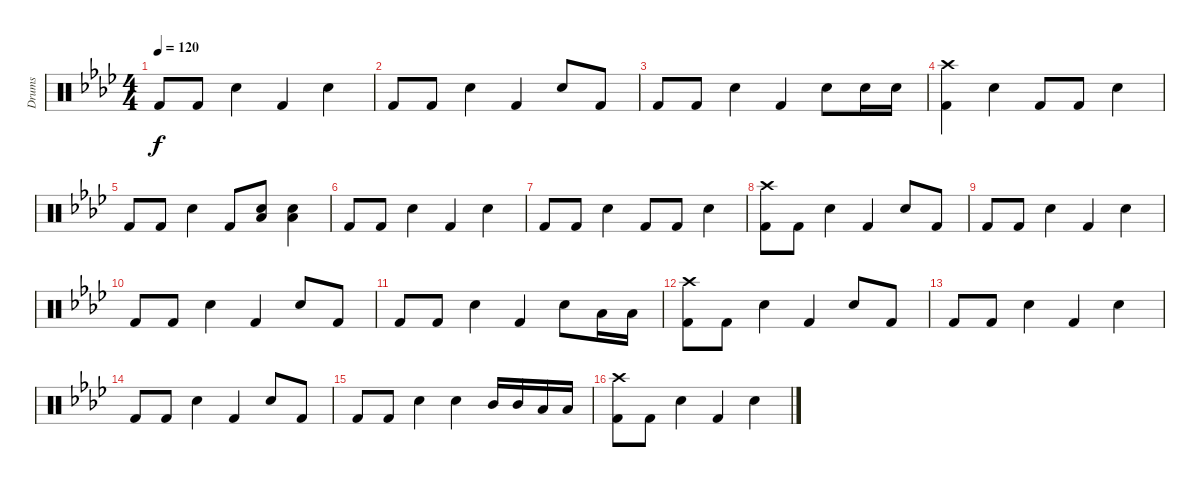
\track ("Drums" "Drums") {instrument percussion}
\staff {score}
\articulation defaults
\ts (4 4)
\tempo 120
\clef neutral
\ks ab "Kick (hit) 2".8{dy f} "Kick (hit) 2".8 "Electric Snare (hit)".4 "Kick (hit) 2".4 "Electric Snare (hit)".4
|
"Kick (hit) 2".8 "Kick (hit) 2".8 "Electric Snare (hit)".4 "Kick (hit) 2".4 "Electric Snare (hit)".8 "Kick (hit) 2".8 |
"Kick (hit) 2".8 "Kick (hit) 2".8 "Electric Snare (hit)".4 "Kick (hit) 2".4 "Electric Snare (hit)".8 "Electric Snare (hit)".16 "Electric Snare (hit)".16 |
("Crash high (hit)" "Kick (hit) 2").4 "Electric Snare (hit)".4 "Kick (hit) 2".8 "Kick (hit) 2".8 "Electric Snare (hit)".4 |
"Kick (hit) 2".8 "Kick (hit) 2".8 "Electric Snare (hit)".4 "Kick (hit) 2".8 ("Low Tom (hit)" "Electric Snare (hit)").8 ("Low Tom (hit)" "Electric Snare (hit)").4 |
"Kick (hit) 2".8 "Kick (hit) 2".8 "Electric Snare (hit)".4 "Kick (hit) 2".4 "Electric Snare (hit)".4 |
"Kick (hit) 2".8 "Kick (hit) 2".8 "Electric Snare (hit)".4 "Kick (hit) 2".8 "Kick (hit) 2".8 "Electric Snare (hit)".4 |
("Crash high (hit)" "Kick (hit) 2").8 "Kick (hit) 2".8 "Electric Snare (hit)".4 "Kick (hit) 2".4 "Electric Snare (hit)".8 "Kick (hit) 2".8 |
"Kick (hit) 2".8 "Kick (hit) 2".8 "Electric Snare (hit)".4 "Kick (hit) 2".4 "Electric Snare (hit)".4 |
"Kick (hit) 2".8 "Kick (hit) 2".8 "Electric Snare (hit)".4 "Kick (hit) 2".4 "Electric Snare (hit)".8 "Kick (hit) 2".8 |
"Kick (hit) 2".8 "Kick (hit) 2".8 "Electric Snare (hit)".4 "Kick (hit) 2".4 "Electric Snare (hit)".8 "Low Tom (hit)".16 "Low Tom (hit)".16 |
("Crash high (hit)" "Kick (hit) 2").8 "Kick (hit) 2".8 "Electric Snare (hit)".4 "Kick (hit) 2".4 "Electric Snare (hit)".8 "Kick (hit) 2".8 |
"Kick (hit) 2".8 "Kick (hit) 2".8 "Electric Snare (hit)".4 "Kick (hit) 2".4 "Electric Snare (hit)".4 |
"Kick (hit) 2".8 "Kick (hit) 2".8 "Electric Snare (hit)".4 "Kick (hit) 2".4 "Electric Snare (hit)".8 "Kick (hit) 2".8 |
"Kick (hit) 2".8 "Kick (hit) 2".8 "Electric Snare (hit)".4 "Electric Snare (hit)".4 "Mid Tom (hit)".16 "Mid Tom (hit)".16 "Low Tom (hit)".16 "Low Floor Tom (hit)".16 |
("Crash high (hit)" "Kick (hit) 2").8 "Kick (hit) 2".8 "Electric Snare (hit)".4 "Kick (hit) 2".4 "Electric Snare (hit)".4
